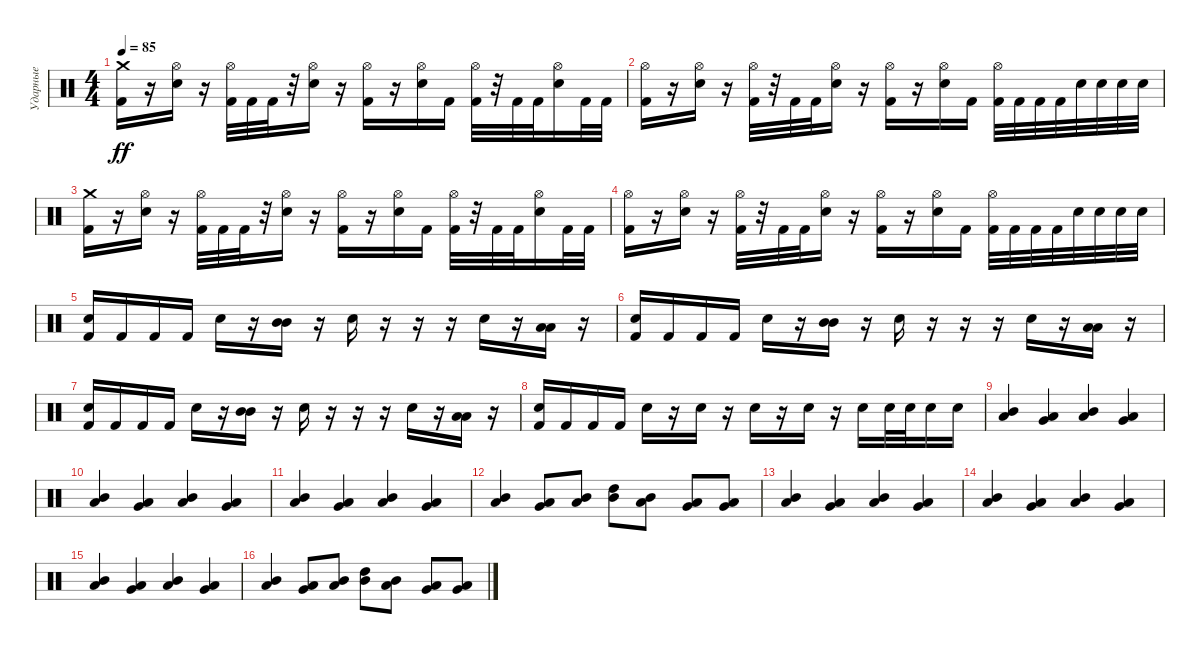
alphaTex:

\track ("Ударные" "Ударные") {instrument percussion}
\staff {score}
\articulation defaults
\ts (4 4)
\tempo 85
\clef neutral
\ks c
("Crash medium (hit)" "Kick (hit) 2").16{dy ff} r.16 ("Hi-Hat (open)" "Electric Snare (hit)").16 r.16 ("Hi-Hat (open)" "Kick (hit) 2").32 "Kick (hit) 2".32 "Kick (hit) 2".32 r.32 ("Hi-Hat (open)" "Electric Snare (hit)").16 r.16 ("Hi-Hat (open)" "Kick (hit) 2").16 r.16 ("Hi-Hat (open)" "Electric Snare (hit)").16 "Kick (hit) 2".16 ("Hi-Hat (open)" "Kick (hit) 2").32 r.32 "Kick (hit) 2".32 "Kick (hit) 2".32 ("Hi-Hat (open)" "Electric Snare (hit)").16 "Kick (hit) 2".32 "Kick (hit) 2".32 |
("Hi-Hat (open)" "Kick (hit) 2").16 r.16 ("Hi-Hat (open)" "Electric Snare (hit)").16 r.16 ("Hi-Hat (open)" "Kick (hit) 2").32 r.32 "Kick (hit) 2".32 "Kick (hit) 2".32 ("Hi-Hat (open)" "Electric Snare (hit)").16 r.16 ("Hi-Hat (open)" "Kick (hit) 2").16 r.16 ("Hi-Hat (open)" "Electric Snare (hit)").16 "Kick (hit) 2".16 ("Hi-Hat (open)" "Kick (hit) 2").32 "Kick (hit) 2".32 "Kick (hit) 2".32 "Kick (hit) 2".32 "Electric Snare (hit)".32 "Electric Snare (hit)".32 "Electric Snare (hit)".32 "Electric Snare (hit)".32 |
("Crash medium (hit)" "Kick (hit) 2").16 r.16 ("Hi-Hat (open)" "Electric Snare (hit)").16 r.16 ("Hi-Hat (open)" "Kick (hit) 2").32 "Kick (hit) 2".32 "Kick (hit) 2".32 r.32 ("Hi-Hat (open)" "Electric Snare (hit)").16 r.16 ("Hi-Hat (open)" "Kick (hit) 2").16 r.16 ("Hi-Hat (open)" "Electric Snare (hit)").16 "Kick (hit) 2".16 ("Hi-Hat (open)" "Kick (hit) 2").32 r.32 "Kick (hit) 2".32 "Kick (hit) 2".32 ("Hi-Hat (open)" "Electric Snare (hit)").16 "Kick (hit) 2".32 "Kick (hit) 2".32 |
("Hi-Hat (open)" "Kick (hit) 2").16 r.16 ("Hi-Hat (open)" "Electric Snare (hit)").16 r.16 ("Hi-Hat (open)" "Kick (hit) 2").32 r.32 "Kick (hit) 2".32 "Kick (hit) 2".32 ("Hi-Hat (open)" "Electric Snare (hit)").16 r.16 ("Hi-Hat (open)" "Kick (hit) 2").16 r.16 ("Hi-Hat (open)" "Electric Snare (hit)").16 "Kick (hit) 2".16 ("Hi-Hat (open)" "Kick (hit) 2").32 "Kick (hit) 2".32 "Kick (hit) 2".32 "Kick (hit) 2".32 "Electric Snare (hit)".32 "Electric Snare (hit)".32 "Electric Snare (hit)".32 "Electric Snare (hit)".32 |
("Electric Snare (hit)" "Kick (hit) 2").16 "Kick (hit) 2".16 "Kick (hit) 2".16 "Kick (hit) 2".16 "Electric Snare (hit)".16 r.16 ("Mid Tom (hit)" "Mid Tom (hit)").16 r.16 "Electric Snare (hit)".16 r.16 r.16 r.16 "Electric Snare (hit)".16 r.16 ("Low Tom (hit)" "Low Tom (hit)").16 r.16 |
("Electric Snare (hit)" "Kick (hit) 2").16 "Kick (hit) 2".16 "Kick (hit) 2".16 "Kick (hit) 2".16 "Electric Snare (hit)".16 r.16 ("Mid Tom (hit)" "Mid Tom (hit)").16 r.16 "Electric Snare (hit)".16 r.16 r.16 r.16 "Electric Snare (hit)".16 r.16 ("Low Tom (hit)" "Low Tom (hit)").16 r.16 |
("Electric Snare (hit)" "Kick (hit) 2").16 "Kick (hit) 2".16 "Kick (hit) 2".16 "Kick (hit) 2".16 "Electric Snare (hit)".16 r.16 ("Mid Tom (hit)" "Mid Tom (hit)").16 r.16 "Electric Snare (hit)".16 r.16 r.16 r.16 "Electric Snare (hit)".16 r.16 ("Low Tom (hit)" "Low Tom (hit)").16 r.16 |
("Electric Snare (hit)" "Kick (hit) 2").16 "Kick (hit) 2".16 "Kick (hit) 2".16 "Kick (hit) 2".16 "Electric Snare (hit)".16 r.16 "Electric Snare (hit)".16 r.16 "Electric Snare (hit)".16 r.16 "Electric Snare (hit)".16 r.16 "Electric Snare (hit)".16 "Electric Snare (hit)".32 "Electric Snare (hit)".32 "Electric Snare (hit)".16 "Electric Snare (hit)".16 |
("Mid Tom (hit)" "Low Tom (hit)").4 ("Low Tom (hit)" "Very Low Tom (hit)").4 ("Mid Tom (hit)" "Low Tom (hit)").4 ("Low Tom (hit)" "Very Low Tom (hit)").4 |
("Mid Tom (hit)" "Low Tom (hit)").4 ("Low Tom (hit)" "Very Low Tom (hit)").4 ("Mid Tom (hit)" "Low Tom (hit)").4 ("Low Tom (hit)" "Very Low Tom (hit)").4 |
("Mid Tom (hit)" "Low Tom (hit)").4 ("Low Tom (hit)" "Very Low Tom (hit)").4 ("Mid Tom (hit)" "Low Tom (hit)").4 ("Low Tom (hit)" "Very Low Tom (hit)").4 |
("Low Tom (hit)" "Mid Tom (hit)").4 ("Low Tom (hit)" "Very Low Tom (hit)").8 ("Low Tom (hit)" "Mid Tom (hit)").8 ("High Tom (hit)" "Mid Tom (hit)").8 ("Low Tom (hit)" "Mid Tom (hit)").8 ("Very Low Tom (hit)" "Low Tom (hit)").8 ("Low Floor Tom (hit)" "Very Low Tom (hit)").8 |
("Mid Tom (hit)" "Low Tom (hit)").4 ("Low Tom (hit)" "Very Low Tom (hit)").4 ("Mid Tom (hit)" "Low Tom (hit)").4 ("Low Tom (hit)" "Very Low Tom (hit)").4 |
("Mid Tom (hit)" "Low Tom (hit)").4 ("Low Tom (hit)" "Very Low Tom (hit)").4 ("Mid Tom (hit)" "Low Tom (hit)").4 ("Low Tom (hit)" "Very Low Tom (hit)").4 |
("Mid Tom (hit)" "Low Tom (hit)").4 ("Low Tom (hit)" "Very Low Tom (hit)").4 ("Mid Tom (hit)" "Low Tom (hit)").4 ("Low Tom (hit)" "Very Low Tom (hit)").4 |
("Low Tom (hit)" "Mid Tom (hit)").4 ("Low Tom (hit)" "Very Low Tom (hit)").8 ("Low Tom (hit)" "Mid Tom (hit)").8 ("High Tom (hit)" "Mid Tom (hit)").8 ("Low Tom (hit)" "Mid Tom (hit)").8 ("Very Low Tom (hit)" "Low Tom (hit)").8 ("Low Floor Tom (hit)" "Very Low Tom (hit)").8
